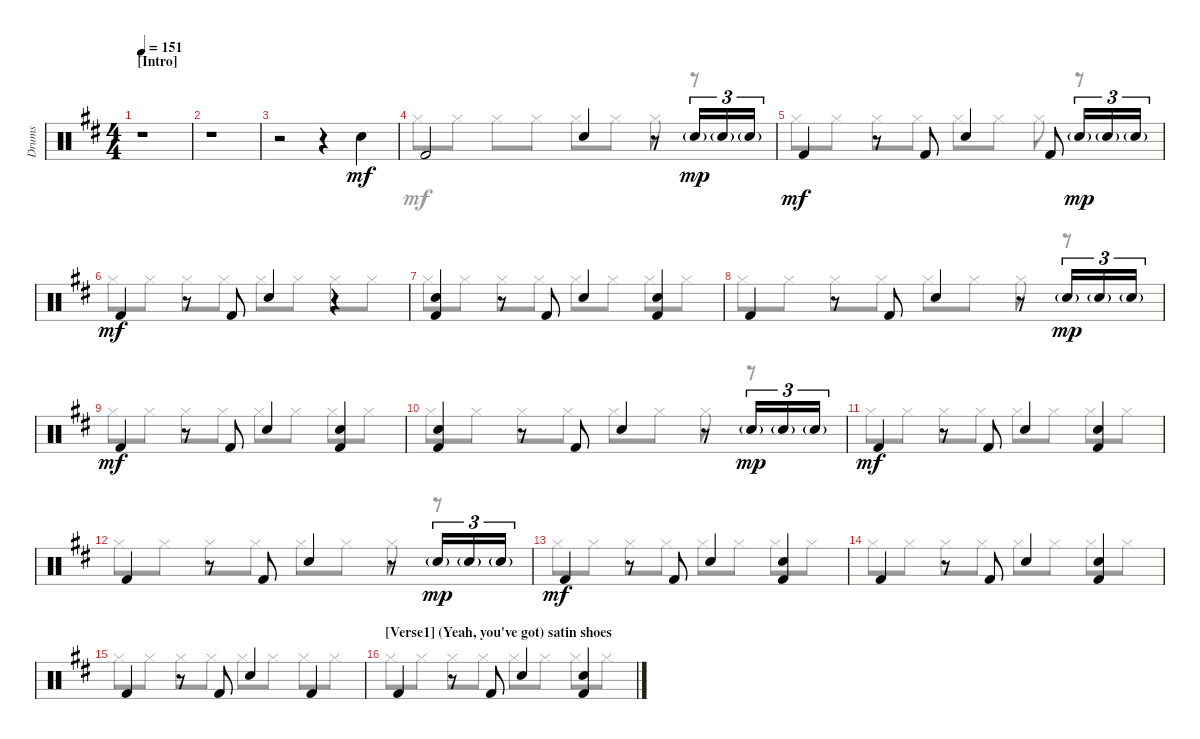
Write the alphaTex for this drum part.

\bracketExtendMode groupsimilarinstruments
\track ("Drumkit" "Drums") {instrument percussion}
\staff {score}
\articulation defaults
\voice
\ts (4 4)
\section ("" "[Intro]")
\tempo 151
\clef neutral
\ks d
r.1{dy mf} |
r.1 |
r.2 r.4 "Snare (hit) 2"{acc forcenatural}.4 |
"Kick (hit) 2"{acc forcenatural}.2 "Snare (hit) 2"{acc forcenatural}.4 r.8 "Snare (hit) 2"{g acc forcenatural}.16{tu (3 2) dy mp} "Snare (hit) 2"{g acc forcenatural}.16{tu (3 2)} "Snare (hit) 2"{g acc forcenatural}.16{tu (3 2)} |
"Kick (hit) 2"{acc forcenatural}.4{dy mf} r.8 "Kick (hit) 2"{acc forcenatural}.8 "Snare (hit) 2"{acc forcenatural}.4 "Kick (hit) 2"{acc forcenatural}.8 "Snare (hit) 2"{g acc forcenatural}.16{tu (3 2) dy mp} "Snare (hit) 2"{g acc forcenatural}.16{tu (3 2)} "Snare (hit) 2"{g acc forcenatural}.16{tu (3 2)} |
"Kick (hit) 2"{acc forcenatural}.4{dy mf} r.8 "Kick (hit) 2"{acc forcenatural}.8 "Snare (hit) 2"{acc forcenatural}.4 r.4 |
("Kick (hit) 2"{acc forcenatural} "Snare (hit) 2"{acc forcenatural}).4 r.8 "Kick (hit) 2"{acc forcenatural}.8 "Snare (hit) 2"{acc forcenatural}.4 ("Kick (hit) 2"{acc forcenatural} "Snare (hit) 2"{acc forcenatural}).4 |
"Kick (hit) 2"{acc forcenatural}.4 r.8 "Kick (hit) 2"{acc forcenatural}.8 "Snare (hit) 2"{acc forcenatural}.4 r.8 "Snare (hit) 2"{g acc forcenatural}.16{tu (3 2) dy mp} "Snare (hit) 2"{g acc forcenatural}.16{tu (3 2)} "Snare (hit) 2"{g acc forcenatural}.16{tu (3 2)} |
"Kick (hit) 2"{acc forcenatural}.4{dy mf} r.8 "Kick (hit) 2"{acc forcenatural}.8 "Snare (hit) 2"{acc forcenatural}.4 ("Kick (hit) 2"{acc forcenatural} "Snare (hit) 2"{acc forcenatural}).4 |
("Kick (hit) 2"{acc forcenatural} "Snare (hit) 2"{acc forcenatural}).4 r.8 "Kick (hit) 2"{acc forcenatural}.8 "Snare (hit) 2"{acc forcenatural}.4 r.8 "Snare (hit) 2"{g acc forcenatural}.16{tu (3 2) dy mp} "Snare (hit) 2"{g acc forcenatural}.16{tu (3 2)} "Snare (hit) 2"{g acc forcenatural}.16{tu (3 2)} |
"Kick (hit) 2"{acc forcenatural}.4{dy mf} r.8 "Kick (hit) 2"{acc forcenatural}.8 "Snare (hit) 2"{acc forcenatural}.4 ("Kick (hit) 2"{acc forcenatural} "Snare (hit) 2"{acc forcenatural}).4 |
"Kick (hit) 2"{acc forcenatural}.4 r.8 "Kick (hit) 2"{acc forcenatural}.8 "Snare (hit) 2"{acc forcenatural}.4 r.8 "Snare (hit) 2"{g acc forcenatural}.16{tu (3 2) dy mp} "Snare (hit) 2"{g acc forcenatural}.16{tu (3 2)} "Snare (hit) 2"{g acc forcenatural}.16{tu (3 2)} |
"Kick (hit) 2"{acc forcenatural}.4{dy mf} r.8 "Kick (hit) 2"{acc forcenatural}.8 "Snare (hit) 2"{acc forcenatural}.4 ("Kick (hit) 2"{acc forcenatural} "Snare (hit) 2"{acc forcenatural}).4 |
"Kick (hit) 2"{acc forcenatural}.4 r.8 "Kick (hit) 2"{acc forcenatural}.8 "Snare (hit) 2"{acc forcenatural}.4 ("Kick (hit) 2"{acc forcenatural} "Snare (hit) 2"{acc forcenatural}).4 |
"Kick (hit) 2"{acc forcenatural}.4 r.8 "Kick (hit) 2"{acc forcenatural}.8 "Snare (hit) 2"{acc forcenatural}.4 "Kick (hit) 2"{acc forcenatural}.4 |
\section ("" "[Verse1] (Yeah, you've got) satin shoes")
"Kick (hit) 2"{acc forcenatural}.4 r.8 "Kick (hit) 2"{acc forcenatural}.8 "Snare (hit) 2"{acc forcenatural}.4 ("Kick (hit) 2"{acc forcenatural} "Snare (hit) 2"{acc forcenatural}).4
\voice
\clef neutral
\ottava regular
\simile none
\ks d
|
|
|
"Hi-Hat (closed)"{acc forcenatural}.8 "Hi-Hat (closed)"{acc forcenatural}.8 "Hi-Hat (closed)"{acc forcenatural}.8 "Hi-Hat (closed)"{acc forcenatural}.8 "Hi-Hat (closed)"{acc forcenatural}.8 "Hi-Hat (closed)"{acc forcenatural}.8 "Hi-Hat (closed)"{acc forcenatural}.8 r.8 |
"Hi-Hat (closed)"{acc forcenatural}.8 "Hi-Hat (closed)"{acc forcenatural}.8 "Hi-Hat (closed)"{acc forcenatural}.8 "Hi-Hat (closed)"{acc forcenatural}.8 "Hi-Hat (closed)"{acc forcenatural}.8 "Hi-Hat (closed)"{acc forcenatural}.8 "Hi-Hat (closed)"{acc forcenatural}.8 r.8 |
"Hi-Hat (closed)"{acc forcenatural}.8 "Hi-Hat (closed)"{acc forcenatural}.8 "Hi-Hat (closed)"{acc forcenatural}.8 "Hi-Hat (closed)"{acc forcenatural}.8 "Hi-Hat (closed)"{acc forcenatural}.8 "Hi-Hat (closed)"{acc forcenatural}.8 "Hi-Hat (closed)"{acc forcenatural}.8 "Hi-Hat (closed)"{acc forcenatural}.8 |
"Hi-Hat (closed)"{acc forcenatural}.8 "Hi-Hat (closed)"{acc forcenatural}.8 "Hi-Hat (closed)"{acc forcenatural}.8 "Hi-Hat (closed)"{acc forcenatural}.8 "Hi-Hat (closed)"{acc forcenatural}.8 "Hi-Hat (closed)"{acc forcenatural}.8 "Hi-Hat (closed)"{acc forcenatural}.8 "Hi-Hat (closed)"{acc forcenatural}.8 |
"Hi-Hat (closed)"{acc forcenatural}.8 "Hi-Hat (closed)"{acc forcenatural}.8 "Hi-Hat (closed)"{acc forcenatural}.8 "Hi-Hat (closed)"{acc forcenatural}.8 "Hi-Hat (closed)"{acc forcenatural}.8 "Hi-Hat (closed)"{acc forcenatural}.8 "Hi-Hat (closed)"{acc forcenatural}.8 r.8 |
"Hi-Hat (closed)"{acc forcenatural}.8 "Hi-Hat (closed)"{acc forcenatural}.8 "Hi-Hat (closed)"{acc forcenatural}.8 "Hi-Hat (closed)"{acc forcenatural}.8 "Hi-Hat (closed)"{acc forcenatural}.8 "Hi-Hat (closed)"{acc forcenatural}.8 "Hi-Hat (closed)"{acc forcenatural}.8 "Hi-Hat (closed)"{acc forcenatural}.8 |
"Hi-Hat (closed)"{acc forcenatural}.8 "Hi-Hat (closed)"{acc forcenatural}.8 "Hi-Hat (closed)"{acc forcenatural}.8 "Hi-Hat (closed)"{acc forcenatural}.8 "Hi-Hat (closed)"{acc forcenatural}.8 "Hi-Hat (closed)"{acc forcenatural}.8 "Hi-Hat (closed)"{acc forcenatural}.8 r.8 |
"Hi-Hat (closed)"{acc forcenatural}.8 "Hi-Hat (closed)"{acc forcenatural}.8 "Hi-Hat (closed)"{acc forcenatural}.8 "Hi-Hat (closed)"{acc forcenatural}.8 "Hi-Hat (closed)"{acc forcenatural}.8 "Hi-Hat (closed)"{acc forcenatural}.8 "Hi-Hat (closed)"{acc forcenatural}.8 "Hi-Hat (closed)"{acc forcenatural}.8 |
"Hi-Hat (closed)"{acc forcenatural}.8 "Hi-Hat (closed)"{acc forcenatural}.8 "Hi-Hat (closed)"{acc forcenatural}.8 "Hi-Hat (closed)"{acc forcenatural}.8 "Hi-Hat (closed)"{acc forcenatural}.8 "Hi-Hat (closed)"{acc forcenatural}.8 "Hi-Hat (closed)"{acc forcenatural}.8 r.8 |
"Hi-Hat (closed)"{acc forcenatural}.8 "Hi-Hat (closed)"{acc forcenatural}.8 "Hi-Hat (closed)"{acc forcenatural}.8 "Hi-Hat (closed)"{acc forcenatural}.8 "Hi-Hat (closed)"{acc forcenatural}.8 "Hi-Hat (closed)"{acc forcenatural}.8 "Hi-Hat (closed)"{acc forcenatural}.8 "Hi-Hat (closed)"{acc forcenatural}.8 |
"Hi-Hat (closed)"{acc forcenatural}.8 "Hi-Hat (closed)"{acc forcenatural}.8 "Hi-Hat (closed)"{acc forcenatural}.8 "Hi-Hat (closed)"{acc forcenatural}.8 "Hi-Hat (closed)"{acc forcenatural}.8 "Hi-Hat (closed)"{acc forcenatural}.8 "Hi-Hat (closed)"{acc forcenatural}.8 "Hi-Hat (closed)"{acc forcenatural}.8 |
"Hi-Hat (closed)"{acc forcenatural}.8 "Hi-Hat (closed)"{acc forcenatural}.8 "Hi-Hat (closed)"{acc forcenatural}.8 "Hi-Hat (closed)"{acc forcenatural}.8 "Hi-Hat (closed)"{acc forcenatural}.8 "Hi-Hat (closed)"{acc forcenatural}.8 "Hi-Hat (closed)"{acc forcenatural}.8 "Hi-Hat (closed)"{acc forcenatural}.8 |
"Hi-Hat (closed)"{acc forcenatural}.8 "Hi-Hat (closed)"{acc forcenatural}.8 "Hi-Hat (closed)"{acc forcenatural}.8 "Hi-Hat (closed)"{acc forcenatural}.8 "Hi-Hat (closed)"{acc forcenatural}.8 "Hi-Hat (closed)"{acc forcenatural}.8 "Hi-Hat (closed)"{acc forcenatural}.8 "Hi-Hat (closed)"{acc forcenatural}.8
